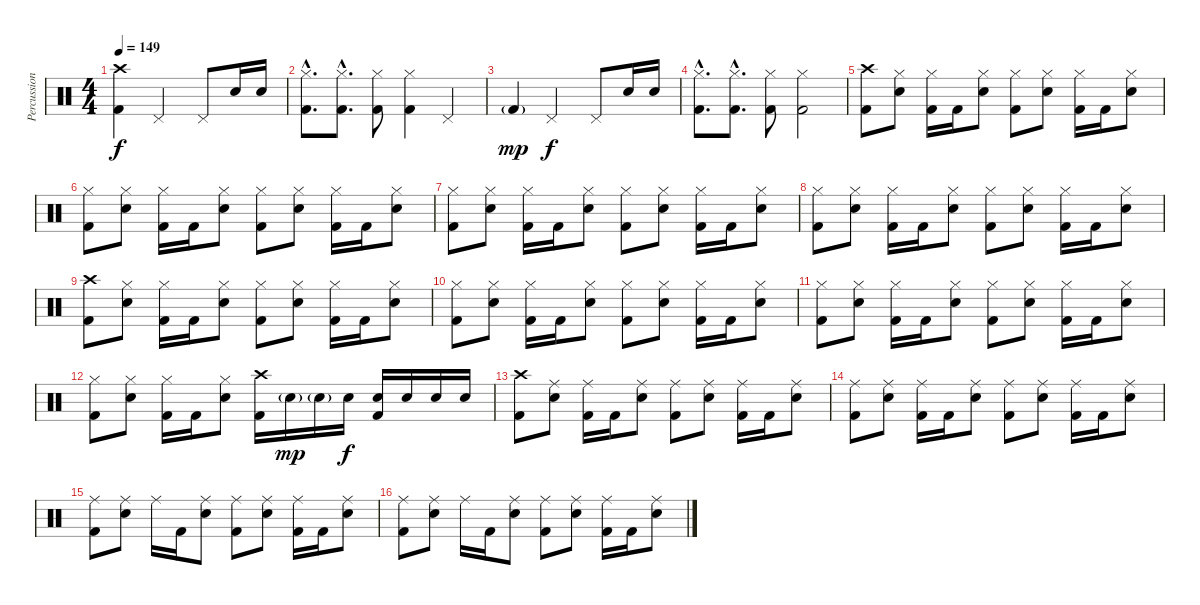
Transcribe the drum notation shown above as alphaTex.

\track ("Percussion" "Percussion") {instrument percussion}
\staff {score}
\articulation defaults
\ts (4 4)
\tempo 149
\clef neutral
\ks c
("Crash high (hit)" "Kick (hit) 2").4{dy f} "Pedal Hi-Hat (hit)".2 "Pedal Hi-Hat (hit)".8 "Snare (hit) 2".16 "Snare (hit) 2".16 |
("Hi-Hat (closed)"{hac} "Kick (hit) 2"{hac}).8{d} ("Hi-Hat (closed)"{hac} "Kick (hit) 2"{hac}).8{d} ("Hi-Hat (closed)" "Kick (hit) 2").8 ("Hi-Hat (closed)" "Kick (hit) 2").4 "Pedal Hi-Hat (hit)".4 |
"Kick (hit) 2"{g}.4{dy mp} "Pedal Hi-Hat (hit)".2{dy f} "Pedal Hi-Hat (hit)".8 "Snare (hit) 2".16 "Snare (hit) 2".16 |
("Hi-Hat (closed)"{hac} "Kick (hit) 2"{hac}).8{d} ("Hi-Hat (closed)"{hac} "Kick (hit) 2"{hac}).8{d} ("Hi-Hat (closed)" "Kick (hit) 2").8 ("Hi-Hat (closed)" "Kick (hit) 2").2 |
("Crash high (hit)" "Kick (hit) 2").8 ("Hi-Hat (closed)" "Snare (hit) 2").8 ("Hi-Hat (closed)" "Kick (hit) 2").16 "Kick (hit) 2".16 ("Hi-Hat (closed)" "Snare (hit) 2").8 ("Hi-Hat (closed)" "Kick (hit) 2").8 ("Hi-Hat (closed)" "Snare (hit) 2").8 ("Hi-Hat (closed)" "Kick (hit) 2").16 "Kick (hit) 2".16 ("Hi-Hat (closed)" "Snare (hit) 2").8 |
("Hi-Hat (closed)" "Kick (hit) 2").8 ("Hi-Hat (closed)" "Snare (hit) 2").8 ("Hi-Hat (closed)" "Kick (hit) 2").16 "Kick (hit) 2".16 ("Hi-Hat (closed)" "Snare (hit) 2").8 ("Hi-Hat (closed)" "Kick (hit) 2").8 ("Hi-Hat (closed)" "Snare (hit) 2").8 ("Hi-Hat (closed)" "Kick (hit) 2").16 "Kick (hit) 2".16 ("Hi-Hat (closed)" "Snare (hit) 2").8 |
("Hi-Hat (closed)" "Kick (hit) 2").8 ("Hi-Hat (closed)" "Snare (hit) 2").8 ("Hi-Hat (closed)" "Kick (hit) 2").16 "Kick (hit) 2".16 ("Hi-Hat (closed)" "Snare (hit) 2").8 ("Hi-Hat (closed)" "Kick (hit) 2").8 ("Hi-Hat (closed)" "Snare (hit) 2").8 ("Hi-Hat (closed)" "Kick (hit) 2").16 "Kick (hit) 2".16 ("Hi-Hat (closed)" "Snare (hit) 2").8 |
("Hi-Hat (closed)" "Kick (hit) 2").8 ("Hi-Hat (closed)" "Snare (hit) 2").8 ("Hi-Hat (closed)" "Kick (hit) 2").16 "Kick (hit) 2".16 ("Hi-Hat (closed)" "Snare (hit) 2").8 ("Hi-Hat (closed)" "Kick (hit) 2").8 ("Hi-Hat (closed)" "Snare (hit) 2").8 ("Hi-Hat (closed)" "Kick (hit) 2").16 "Kick (hit) 2".16 ("Hi-Hat (closed)" "Snare (hit) 2").8 |
("Crash high (hit)" "Kick (hit) 2").8 ("Hi-Hat (closed)" "Snare (hit) 2").8 ("Hi-Hat (closed)" "Kick (hit) 2").16 "Kick (hit) 2".16 ("Hi-Hat (closed)" "Snare (hit) 2").8 ("Hi-Hat (closed)" "Kick (hit) 2").8 ("Hi-Hat (closed)" "Snare (hit) 2").8 ("Hi-Hat (closed)" "Kick (hit) 2").16 "Kick (hit) 2".16 ("Hi-Hat (closed)" "Snare (hit) 2").8 |
("Hi-Hat (closed)" "Kick (hit) 2").8 ("Hi-Hat (closed)" "Snare (hit) 2").8 ("Hi-Hat (closed)" "Kick (hit) 2").16 "Kick (hit) 2".16 ("Hi-Hat (closed)" "Snare (hit) 2").8 ("Hi-Hat (closed)" "Kick (hit) 2").8 ("Hi-Hat (closed)" "Snare (hit) 2").8 ("Hi-Hat (closed)" "Kick (hit) 2").16 "Kick (hit) 2".16 ("Hi-Hat (closed)" "Snare (hit) 2").8 |
("Hi-Hat (closed)" "Kick (hit) 2").8 ("Hi-Hat (closed)" "Snare (hit) 2").8 ("Hi-Hat (closed)" "Kick (hit) 2").16 "Kick (hit) 2".16 ("Hi-Hat (closed)" "Snare (hit) 2").8 ("Hi-Hat (closed)" "Kick (hit) 2").8 ("Hi-Hat (closed)" "Snare (hit) 2").8 ("Hi-Hat (closed)" "Kick (hit) 2").16 "Kick (hit) 2".16 ("Hi-Hat (closed)" "Snare (hit) 2").8 |
("Hi-Hat (closed)" "Kick (hit) 2").8 ("Hi-Hat (closed)" "Snare (hit) 2").8 ("Hi-Hat (closed)" "Kick (hit) 2").16 "Kick (hit) 2".16 ("Hi-Hat (closed)" "Snare (hit) 2").8 ("Crash high (hit)" "Kick (hit) 2").16 "Snare (hit) 2"{g}.16{dy mp} "Snare (hit) 2"{g}.16 "Snare (hit) 2".16{dy f} ("Snare (hit) 2" "Kick (hit) 2").16 "Snare (hit) 2".16 "Snare (hit) 2".16 "Snare (hit) 2".16 |
("Crash high (hit)" "Kick (hit) 2").8 ("Ride (middle)" "Snare (hit) 2").8 ("Ride (middle)" "Kick (hit) 2").16 "Kick (hit) 2".16 ("Ride (middle)" "Snare (hit) 2").8 ("Ride (middle)" "Kick (hit) 2").8 ("Ride (middle)" "Snare (hit) 2").8 ("Ride (middle)" "Kick (hit) 2").16 "Kick (hit) 2".16 ("Ride (middle)" "Snare (hit) 2").8 |
("Ride (middle)" "Kick (hit) 2").8 ("Ride (middle)" "Snare (hit) 2").8 ("Ride (middle)" "Kick (hit) 2").16 "Kick (hit) 2".16 ("Ride (middle)" "Snare (hit) 2").8 ("Ride (middle)" "Kick (hit) 2").8 ("Ride (middle)" "Snare (hit) 2").8 ("Ride (middle)" "Kick (hit) 2").16 "Kick (hit) 2".16 ("Ride (middle)" "Snare (hit) 2").8 |
("Ride (middle)" "Kick (hit) 2").8 ("Ride (middle)" "Snare (hit) 2").8 "Ride (middle)".16 "Kick (hit) 2".16 ("Ride (middle)" "Snare (hit) 2").8 ("Ride (middle)" "Kick (hit) 2").8 ("Ride (middle)" "Snare (hit) 2").8 ("Ride (middle)" "Kick (hit) 2").16 "Kick (hit) 2".16 ("Ride (middle)" "Snare (hit) 2").8 |
("Ride (middle)" "Kick (hit) 2").8 ("Ride (middle)" "Snare (hit) 2").8 "Ride (middle)".16 "Kick (hit) 2".16 ("Ride (middle)" "Snare (hit) 2").8 ("Ride (middle)" "Kick (hit) 2").8 ("Ride (middle)" "Snare (hit) 2").8 ("Ride (middle)" "Kick (hit) 2").16 "Kick (hit) 2".16 ("Ride (middle)" "Snare (hit) 2").8
